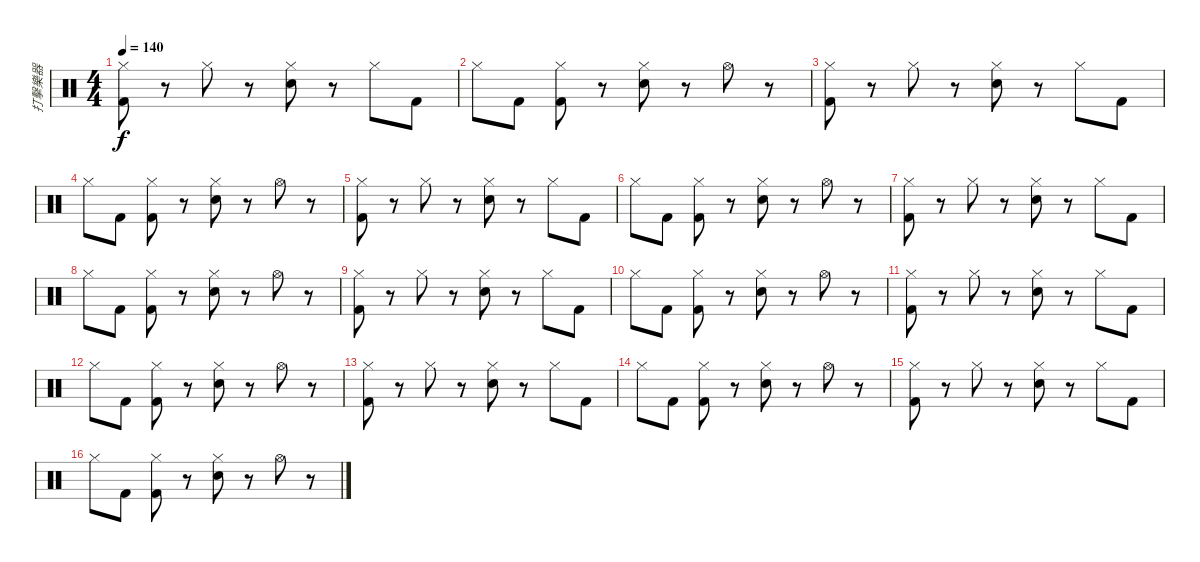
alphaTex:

\track ("打擊樂器" "打擊樂器") {instrument percussion}
\staff {score}
\articulation defaults
\ts (4 4)
\tempo 140
\clef neutral
\ks c
("Hi-Hat (closed)" "Kick (hit) 2").8{dy f} r.8 "Hi-Hat (closed)".8 r.8 ("Hi-Hat (closed)" "Electric Snare (hit)").8 r.8 "Hi-Hat (closed)".8 "Kick (hit) 2".8 |
"Hi-Hat (closed)".8 "Kick (hit) 2".8 ("Hi-Hat (closed)" "Kick (hit) 2").8 r.8 ("Hi-Hat (closed)" "Electric Snare (hit)").8 r.8 "Hi-Hat (open)".8 r.8 |
("Hi-Hat (closed)" "Kick (hit) 2").8 r.8 "Hi-Hat (closed)".8 r.8 ("Hi-Hat (closed)" "Electric Snare (hit)").8 r.8 "Hi-Hat (closed)".8 "Kick (hit) 2".8 |
"Hi-Hat (closed)".8 "Kick (hit) 2".8 ("Hi-Hat (closed)" "Kick (hit) 2").8 r.8 ("Hi-Hat (closed)" "Electric Snare (hit)").8 r.8 "Hi-Hat (open)".8 r.8 |
("Hi-Hat (closed)" "Kick (hit) 2").8 r.8 "Hi-Hat (closed)".8 r.8 ("Hi-Hat (closed)" "Electric Snare (hit)").8 r.8 "Hi-Hat (closed)".8 "Kick (hit) 2".8 |
"Hi-Hat (closed)".8 "Kick (hit) 2".8 ("Hi-Hat (closed)" "Kick (hit) 2").8 r.8 ("Hi-Hat (closed)" "Electric Snare (hit)").8 r.8 "Hi-Hat (open)".8 r.8 |
("Hi-Hat (closed)" "Kick (hit) 2").8 r.8 "Hi-Hat (closed)".8 r.8 ("Hi-Hat (closed)" "Electric Snare (hit)").8 r.8 "Hi-Hat (closed)".8 "Kick (hit) 2".8 |
"Hi-Hat (closed)".8 "Kick (hit) 2".8 ("Hi-Hat (closed)" "Kick (hit) 2").8 r.8 ("Hi-Hat (closed)" "Electric Snare (hit)").8 r.8 "Hi-Hat (open)".8 r.8 |
("Hi-Hat (closed)" "Kick (hit) 2").8 r.8 "Hi-Hat (closed)".8 r.8 ("Hi-Hat (closed)" "Electric Snare (hit)").8 r.8 "Hi-Hat (closed)".8 "Kick (hit) 2".8 |
"Hi-Hat (closed)".8 "Kick (hit) 2".8 ("Hi-Hat (closed)" "Kick (hit) 2").8 r.8 ("Hi-Hat (closed)" "Electric Snare (hit)").8 r.8 "Hi-Hat (open)".8 r.8 |
("Hi-Hat (closed)" "Kick (hit) 2").8 r.8 "Hi-Hat (closed)".8 r.8 ("Hi-Hat (closed)" "Electric Snare (hit)").8 r.8 "Hi-Hat (closed)".8 "Kick (hit) 2".8 |
"Hi-Hat (closed)".8 "Kick (hit) 2".8 ("Hi-Hat (closed)" "Kick (hit) 2").8 r.8 ("Hi-Hat (closed)" "Electric Snare (hit)").8 r.8 "Hi-Hat (open)".8 r.8 |
("Hi-Hat (closed)" "Kick (hit) 2").8 r.8 "Hi-Hat (closed)".8 r.8 ("Hi-Hat (closed)" "Electric Snare (hit)").8 r.8 "Hi-Hat (closed)".8 "Kick (hit) 2".8 |
"Hi-Hat (closed)".8 "Kick (hit) 2".8 ("Hi-Hat (closed)" "Kick (hit) 2").8 r.8 ("Hi-Hat (closed)" "Electric Snare (hit)").8 r.8 "Hi-Hat (open)".8 r.8 |
("Hi-Hat (closed)" "Kick (hit) 2").8 r.8 "Hi-Hat (closed)".8 r.8 ("Hi-Hat (closed)" "Electric Snare (hit)").8 r.8 "Hi-Hat (closed)".8 "Kick (hit) 2".8 |
"Hi-Hat (closed)".8 "Kick (hit) 2".8 ("Hi-Hat (closed)" "Kick (hit) 2").8 r.8 ("Hi-Hat (closed)" "Electric Snare (hit)").8 r.8 "Hi-Hat (open)".8 r.8
